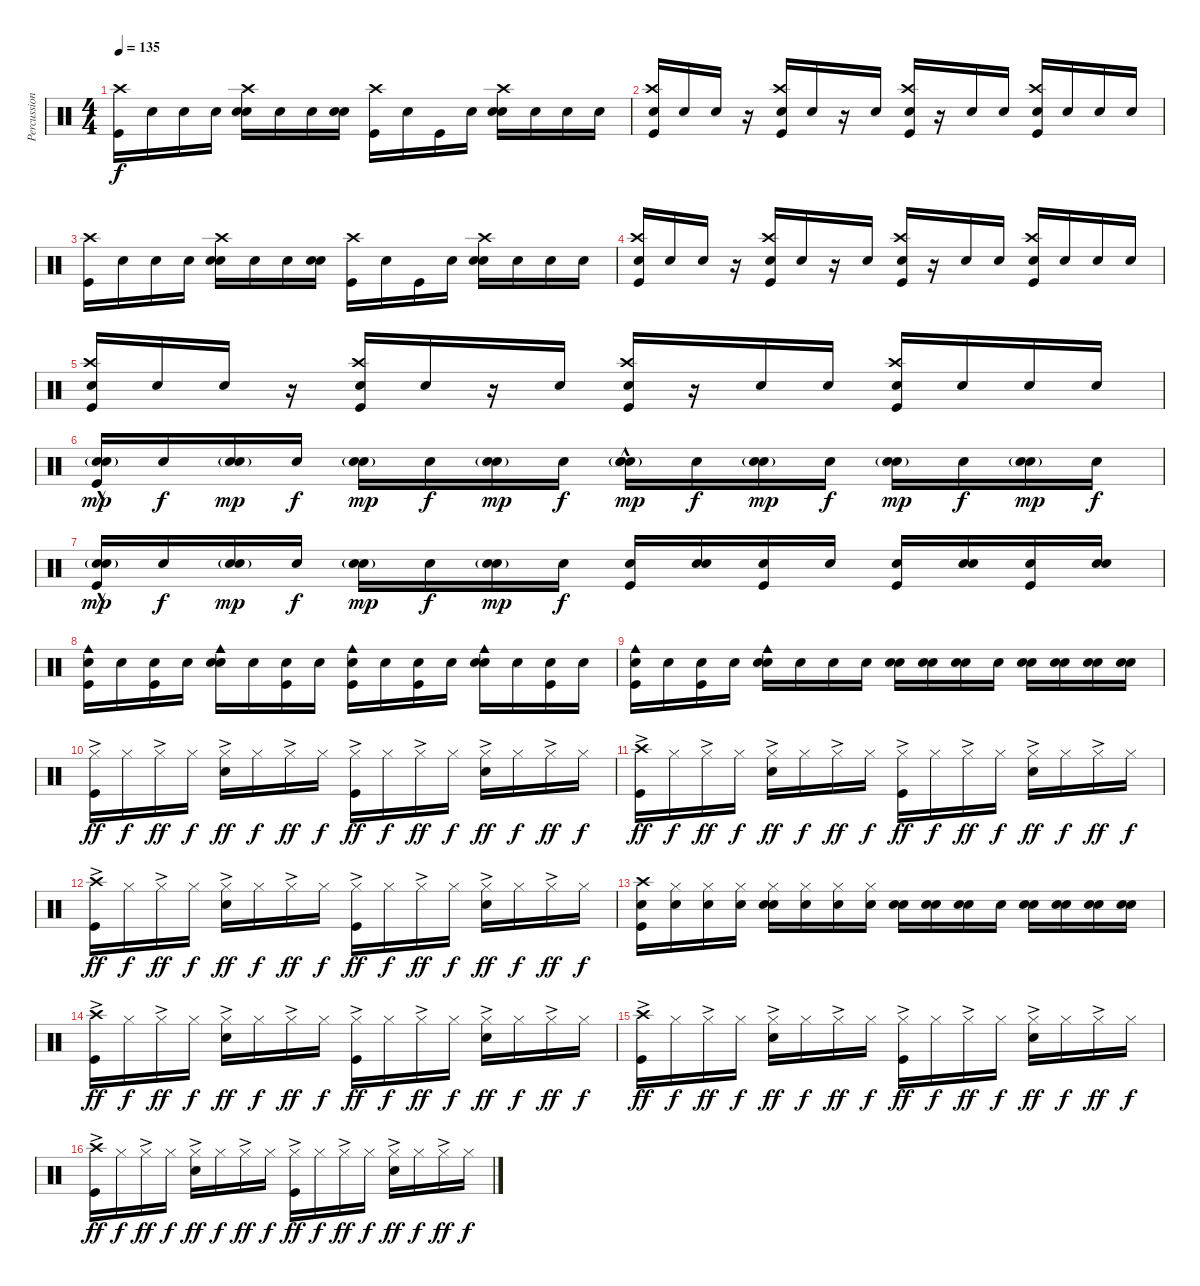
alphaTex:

\track ("Percussion" "Percussion") {instrument percussion}
\staff {score}
\articulation defaults
\ts (4 4)
\tempo 135
\clef neutral
\ks c
("Kick (hit)" "Crash high (hit)").16{dy f} "Snare (hit)".16 "Snare (hit)".16 "Snare (hit)".16 ("Snare (hit)" "Electric Snare (hit)" "Crash high (hit)").16 "Snare (hit)".16 "Snare (hit)".16 ("Snare (hit)" "Electric Snare (hit)").16 ("Kick (hit)" "Crash high (hit)").16 "Snare (hit)".16 "Kick (hit)".16 "Snare (hit)".16 ("Snare (hit)" "Electric Snare (hit)" "Crash high (hit)").16 "Snare (hit)".16 "Snare (hit)".16 "Snare (hit)".16 |
("Kick (hit)" "Electric Snare (hit)" "Crash high (hit)").16 "Snare (hit)".16 "Snare (hit)".16 r.16 ("Kick (hit)" "Electric Snare (hit)" "Crash high (hit)").16 "Snare (hit)".16 r.16 "Snare (hit)".16 ("Kick (hit)" "Electric Snare (hit)" "Crash high (hit)").16 r.16 "Snare (hit)".16 "Snare (hit)".16 ("Kick (hit)" "Electric Snare (hit)" "Crash high (hit)").16 "Snare (hit)".16 "Snare (hit)".16 "Snare (hit)".16 |
("Kick (hit)" "Crash high (hit)").16 "Snare (hit)".16 "Snare (hit)".16 "Snare (hit)".16 ("Snare (hit)" "Electric Snare (hit)" "Crash high (hit)").16 "Snare (hit)".16 "Snare (hit)".16 ("Snare (hit)" "Electric Snare (hit)").16 ("Kick (hit)" "Crash high (hit)").16 "Snare (hit)".16 "Kick (hit)".16 "Snare (hit)".16 ("Snare (hit)" "Electric Snare (hit)" "Crash high (hit)").16 "Snare (hit)".16 "Snare (hit)".16 "Snare (hit)".16 |
("Kick (hit)" "Electric Snare (hit)" "Crash high (hit)").16 "Snare (hit)".16 "Snare (hit)".16 r.16 ("Kick (hit)" "Electric Snare (hit)" "Crash high (hit)").16 "Snare (hit)".16 r.16 "Snare (hit)".16 ("Kick (hit)" "Electric Snare (hit)" "Crash high (hit)").16 r.16 "Snare (hit)".16 "Snare (hit)".16 ("Kick (hit)" "Electric Snare (hit)" "Crash high (hit)").16 "Snare (hit)".16 "Snare (hit)".16 "Snare (hit)".16 |
("Kick (hit)" "Electric Snare (hit)" "Crash high (hit)").16 "Snare (hit)".16 "Snare (hit)".16 r.16 ("Kick (hit)" "Electric Snare (hit)" "Crash high (hit)").16 "Snare (hit)".16 r.16 "Snare (hit)".16 ("Kick (hit)" "Electric Snare (hit)" "Crash high (hit)").16 r.16 "Snare (hit)".16 "Snare (hit)".16 ("Kick (hit)" "Electric Snare (hit)" "Crash high (hit)").16 "Snare (hit)".16 "Snare (hit)".16 "Snare (hit)".16 |
("Snare (hit)" "Kick (hit)"{hac} "Snare (hit) 2"{g}).16{dy mp} "Snare (hit)".16{dy f} ("Snare (hit)" "Snare (hit) 2"{g}).16{dy mp} "Snare (hit)".16{dy f} ("Snare (hit)" "Snare (hit) 2"{g}).16{dy mp} "Snare (hit)".16{dy f} ("Snare (hit)" "Snare (hit) 2"{g}).16{dy mp} "Snare (hit)".16{dy f} ("Snare (hit)" "Electric Snare (hit)"{hac} "Snare (hit) 2"{g}).16{dy mp} "Snare (hit)".16{dy f} ("Snare (hit)" "Snare (hit) 2"{g}).16{dy mp} "Snare (hit)".16{dy f} ("Snare (hit)" "Snare (hit) 2"{g}).16{dy mp} "Snare (hit)".16{dy f} ("Snare (hit)" "Snare (hit) 2"{g}).16{dy mp} "Snare (hit)".16{dy f} |
("Snare (hit)" "Kick (hit)"{hac} "Snare (hit) 2"{g}).16{dy mp} "Snare (hit)".16{dy f} ("Snare (hit)" "Snare (hit) 2"{g}).16{dy mp} "Snare (hit)".16{dy f} ("Snare (hit)" "Snare (hit) 2"{g}).16{dy mp} "Snare (hit)".16{dy f} ("Snare (hit)" "Snare (hit) 2"{g}).16{dy mp} "Snare (hit)".16{dy f} ("Kick (hit)" "Electric Snare (hit)").16 ("Snare (hit)" "Electric Snare (hit)").16 ("Kick (hit)" "Electric Snare (hit)").16 "Electric Snare (hit)".16 ("Kick (hit)" "Electric Snare (hit)").16 ("Snare (hit)" "Electric Snare (hit)").16 ("Kick (hit)" "Electric Snare (hit)").16 ("Snare (hit)" "Electric Snare (hit)").16 |
("Snare (hit)" "Kick (hit)" "Cowbell medium (hit)").16 "Snare (hit)".16 ("Snare (hit)" "Kick (hit)").16 "Snare (hit)".16 ("Snare (hit)" "Electric Snare (hit)" "Cowbell medium (hit)").16 "Snare (hit)".16 ("Snare (hit)" "Kick (hit)").16 "Snare (hit)".16 ("Snare (hit)" "Kick (hit)" "Cowbell medium (hit)").16 "Snare (hit)".16 ("Snare (hit)" "Kick (hit)").16 "Snare (hit)".16 ("Snare (hit)" "Electric Snare (hit)" "Cowbell medium (hit)").16 "Snare (hit)".16 ("Snare (hit)" "Kick (hit)").16 "Snare (hit)".16 |
("Snare (hit)" "Kick (hit)" "Cowbell medium (hit)").16 "Snare (hit)".16 ("Snare (hit)" "Kick (hit)").16 "Snare (hit)".16 ("Snare (hit)" "Electric Snare (hit)" "Cowbell medium (hit)").16 "Snare (hit)".16 "Snare (hit)".16 "Snare (hit)".16 ("Snare (hit)" "Electric Snare (hit)").16 ("Snare (hit)" "Electric Snare (hit)").16 ("Snare (hit)" "Electric Snare (hit)").16 "Snare (hit)".16 ("Snare (hit)" "Electric Snare (hit)").16 ("Snare (hit)" "Electric Snare (hit)").16 ("Snare (hit)" "Electric Snare (hit)").16 ("Snare (hit)" "Electric Snare (hit)").16 |
("Kick (hit)" "Hi-Hat (closed)"{ac}).16{dy ff} "Hi-Hat (closed)".16{dy f} "Hi-Hat (closed)"{ac}.16{dy ff} "Hi-Hat (closed)".16{dy f} ("Electric Snare (hit)" "Hi-Hat (closed)"{ac}).16{dy ff} "Hi-Hat (closed)".16{dy f} "Hi-Hat (closed)"{ac}.16{dy ff} "Hi-Hat (closed)".16{dy f} ("Kick (hit)" "Hi-Hat (closed)"{ac}).16{dy ff} "Hi-Hat (closed)".16{dy f} "Hi-Hat (closed)"{ac}.16{dy ff} "Hi-Hat (closed)".16{dy f} ("Electric Snare (hit)" "Hi-Hat (closed)"{ac}).16{dy ff} "Hi-Hat (closed)".16{dy f} "Hi-Hat (closed)"{ac}.16{dy ff} "Hi-Hat (closed)".16{dy f} |
("Kick (hit)" "Crash high (hit)"{ac}).16{dy ff} "Hi-Hat (closed)".16{dy f} "Hi-Hat (closed)"{ac}.16{dy ff} "Hi-Hat (closed)".16{dy f} ("Electric Snare (hit)" "Hi-Hat (closed)"{ac}).16{dy ff} "Hi-Hat (closed)".16{dy f} "Hi-Hat (closed)"{ac}.16{dy ff} "Hi-Hat (closed)".16{dy f} ("Kick (hit)" "Hi-Hat (closed)"{ac}).16{dy ff} "Hi-Hat (closed)".16{dy f} "Hi-Hat (closed)"{ac}.16{dy ff} "Hi-Hat (closed)".16{dy f} ("Electric Snare (hit)" "Hi-Hat (closed)"{ac}).16{dy ff} "Hi-Hat (closed)".16{dy f} "Hi-Hat (closed)"{ac}.16{dy ff} "Hi-Hat (closed)".16{dy f} |
("Kick (hit)" "Crash high (hit)"{ac}).16{dy ff} "Hi-Hat (closed)".16{dy f} "Hi-Hat (closed)"{ac}.16{dy ff} "Hi-Hat (closed)".16{dy f} ("Electric Snare (hit)" "Hi-Hat (closed)"{ac}).16{dy ff} "Hi-Hat (closed)".16{dy f} "Hi-Hat (closed)"{ac}.16{dy ff} "Hi-Hat (closed)".16{dy f} ("Kick (hit)" "Hi-Hat (closed)"{ac}).16{dy ff} "Hi-Hat (closed)".16{dy f} "Hi-Hat (closed)"{ac}.16{dy ff} "Hi-Hat (closed)".16{dy f} ("Electric Snare (hit)" "Hi-Hat (closed)"{ac}).16{dy ff} "Hi-Hat (closed)".16{dy f} "Hi-Hat (closed)"{ac}.16{dy ff} "Hi-Hat (closed)".16{dy f} |
("Snare (hit)" "Kick (hit)" "Crash high (hit)").16 ("Snare (hit)" "Hi-Hat (closed)").16 ("Snare (hit)" "Hi-Hat (closed)").16 ("Snare (hit)" "Hi-Hat (closed)").16 ("Snare (hit)" "Electric Snare (hit)" "Hi-Hat (closed)").16 ("Snare (hit)" "Hi-Hat (closed)").16 ("Snare (hit)" "Hi-Hat (closed)").16 ("Snare (hit)" "Hi-Hat (closed)").16 ("Snare (hit)" "Electric Snare (hit)").16 ("Snare (hit)" "Electric Snare (hit)").16 ("Snare (hit)" "Electric Snare (hit)").16 "Snare (hit)".16 ("Snare (hit)" "Electric Snare (hit)").16 ("Snare (hit)" "Electric Snare (hit)").16 ("Snare (hit)" "Electric Snare (hit)").16 ("Snare (hit)" "Electric Snare (hit)").16 |
("Kick (hit)" "Crash high (hit)"{ac}).16{dy ff} "Hi-Hat (closed)".16{dy f} "Hi-Hat (closed)"{ac}.16{dy ff} "Hi-Hat (closed)".16{dy f} ("Electric Snare (hit)" "Hi-Hat (closed)"{ac}).16{dy ff} "Hi-Hat (closed)".16{dy f} "Hi-Hat (closed)"{ac}.16{dy ff} "Hi-Hat (closed)".16{dy f} ("Kick (hit)" "Hi-Hat (closed)"{ac}).16{dy ff} "Hi-Hat (closed)".16{dy f} "Hi-Hat (closed)"{ac}.16{dy ff} "Hi-Hat (closed)".16{dy f} ("Electric Snare (hit)" "Hi-Hat (closed)"{ac}).16{dy ff} "Hi-Hat (closed)".16{dy f} "Hi-Hat (closed)"{ac}.16{dy ff} "Hi-Hat (closed)".16{dy f} |
("Kick (hit)" "Crash high (hit)"{ac}).16{dy ff} "Hi-Hat (closed)".16{dy f} "Hi-Hat (closed)"{ac}.16{dy ff} "Hi-Hat (closed)".16{dy f} ("Electric Snare (hit)" "Hi-Hat (closed)"{ac}).16{dy ff} "Hi-Hat (closed)".16{dy f} "Hi-Hat (closed)"{ac}.16{dy ff} "Hi-Hat (closed)".16{dy f} ("Kick (hit)" "Hi-Hat (closed)"{ac}).16{dy ff} "Hi-Hat (closed)".16{dy f} "Hi-Hat (closed)"{ac}.16{dy ff} "Hi-Hat (closed)".16{dy f} ("Electric Snare (hit)" "Hi-Hat (closed)"{ac}).16{dy ff} "Hi-Hat (closed)".16{dy f} "Hi-Hat (closed)"{ac}.16{dy ff} "Hi-Hat (closed)".16{dy f} |
("Kick (hit)" "Crash high (hit)"{ac}).16{dy ff} "Hi-Hat (closed)".16{dy f} "Hi-Hat (closed)"{ac}.16{dy ff} "Hi-Hat (closed)".16{dy f} ("Electric Snare (hit)" "Hi-Hat (closed)"{ac}).16{dy ff} "Hi-Hat (closed)".16{dy f} "Hi-Hat (closed)"{ac}.16{dy ff} "Hi-Hat (closed)".16{dy f} ("Kick (hit)" "Hi-Hat (closed)"{ac}).16{dy ff} "Hi-Hat (closed)".16{dy f} "Hi-Hat (closed)"{ac}.16{dy ff} "Hi-Hat (closed)".16{dy f} ("Electric Snare (hit)" "Hi-Hat (closed)"{ac}).16{dy ff} "Hi-Hat (closed)".16{dy f} "Hi-Hat (closed)"{ac}.16{dy ff} "Hi-Hat (closed)".16{dy f}
